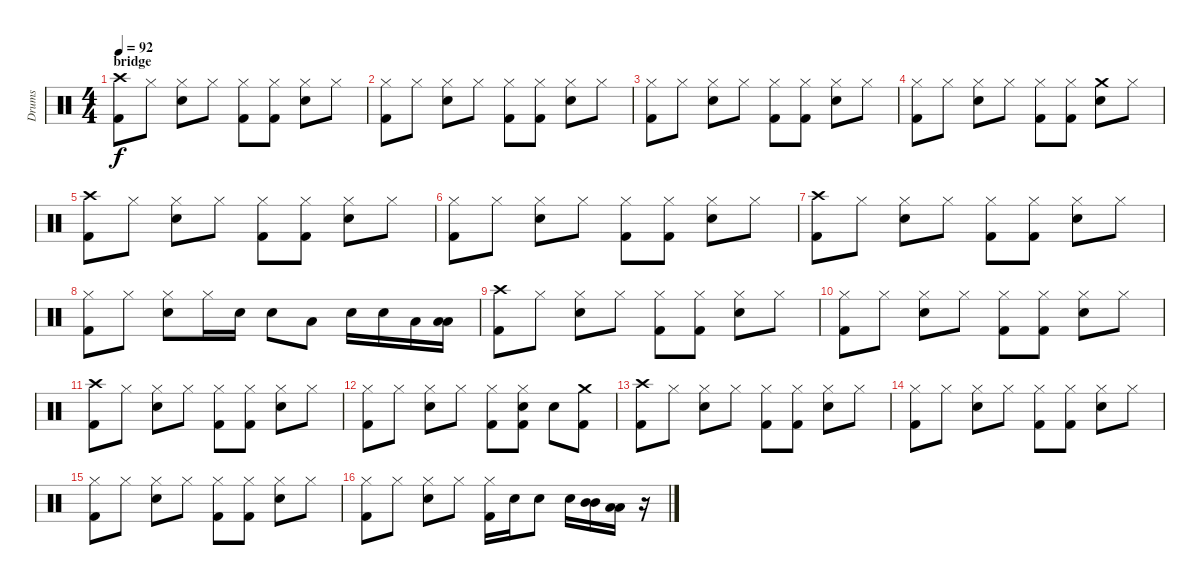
\track ("Drums" "Drums") {instrument percussion}
\staff {score}
\articulation defaults
\ts (4 4)
\section ("" "bridge")
\tempo 92
\clef neutral
\ks c
("Kick (hit) 2" "Crash high (hit)").8{dy f} "Hi-Hat (closed)".8 ("Hi-Hat (closed)" "Snare (hit) 2").8 "Hi-Hat (closed)".8 ("Hi-Hat (closed)" "Kick (hit) 2").8 ("Hi-Hat (closed)" "Kick (hit) 2").8 ("Hi-Hat (closed)" "Snare (hit) 2").8 "Hi-Hat (closed)".8 |
("Hi-Hat (closed)" "Kick (hit) 2").8 "Hi-Hat (closed)".8 ("Hi-Hat (closed)" "Snare (hit) 2").8 "Hi-Hat (closed)".8 ("Hi-Hat (closed)" "Kick (hit) 2").8 ("Hi-Hat (closed)" "Kick (hit) 2").8 ("Hi-Hat (closed)" "Snare (hit) 2").8 "Hi-Hat (closed)".8 |
("Hi-Hat (closed)" "Kick (hit) 2").8 "Hi-Hat (closed)".8 ("Hi-Hat (closed)" "Snare (hit) 2").8 "Hi-Hat (closed)".8 ("Hi-Hat (closed)" "Kick (hit) 2").8 ("Hi-Hat (closed)" "Kick (hit) 2").8 ("Hi-Hat (closed)" "Snare (hit) 2").8 "Hi-Hat (closed)".8 |
("Hi-Hat (closed)" "Kick (hit) 2").8 "Hi-Hat (closed)".8 ("Hi-Hat (closed)" "Snare (hit) 2").8 "Hi-Hat (closed)".8 ("Hi-Hat (closed)" "Kick (hit) 2").8 ("Hi-Hat (closed)" "Kick (hit) 2").8 ("Snare (hit) 2" "Crash medium (hit)").8 "Hi-Hat (closed)".8 |
("Kick (hit) 2" "Crash high (hit)").8 "Hi-Hat (closed)".8 ("Hi-Hat (closed)" "Snare (hit) 2").8 "Hi-Hat (closed)".8 ("Hi-Hat (closed)" "Kick (hit) 2").8 ("Hi-Hat (closed)" "Kick (hit) 2").8 ("Hi-Hat (closed)" "Snare (hit) 2").8 "Hi-Hat (closed)".8 |
("Hi-Hat (closed)" "Kick (hit) 2").8 "Hi-Hat (closed)".8 ("Hi-Hat (closed)" "Snare (hit) 2").8 "Hi-Hat (closed)".8 ("Hi-Hat (closed)" "Kick (hit) 2").8 ("Hi-Hat (closed)" "Kick (hit) 2").8 ("Hi-Hat (closed)" "Snare (hit) 2").8 "Hi-Hat (closed)".8 |
("Kick (hit) 2" "Crash high (hit)").8 "Hi-Hat (closed)".8 ("Hi-Hat (closed)" "Snare (hit) 2").8 "Hi-Hat (closed)".8 ("Hi-Hat (closed)" "Kick (hit) 2").8 ("Hi-Hat (closed)" "Kick (hit) 2").8 ("Hi-Hat (closed)" "Snare (hit) 2").8 "Hi-Hat (closed)".8 |
("Hi-Hat (closed)" "Kick (hit) 2").8 "Hi-Hat (closed)".8 ("Hi-Hat (closed)" "Snare (hit) 2").8 "Hi-Hat (closed)".16 "Snare (hit) 2".16 "Snare (hit) 2".8 "Low Tom (hit)".8 "Snare (hit) 2".16 "Snare (hit) 2".16 "Low Tom (hit)".16 ("Low Tom (hit)" "Low Floor Tom (hit)").16 |
("Kick (hit) 2" "Crash high (hit)").8 "Hi-Hat (closed)".8 ("Hi-Hat (closed)" "Snare (hit) 2").8 "Hi-Hat (closed)".8 ("Hi-Hat (closed)" "Kick (hit) 2").8 ("Hi-Hat (closed)" "Kick (hit) 2").8 ("Hi-Hat (closed)" "Snare (hit) 2").8 "Hi-Hat (closed)".8 |
("Hi-Hat (closed)" "Kick (hit) 2").8 "Hi-Hat (closed)".8 ("Hi-Hat (closed)" "Snare (hit) 2").8 "Hi-Hat (closed)".8 ("Hi-Hat (closed)" "Kick (hit) 2").8 ("Hi-Hat (closed)" "Kick (hit) 2").8 ("Hi-Hat (closed)" "Snare (hit) 2").8 "Hi-Hat (closed)".8 |
("Kick (hit) 2" "Crash high (hit)").8 "Hi-Hat (closed)".8 ("Hi-Hat (closed)" "Snare (hit) 2").8 "Hi-Hat (closed)".8 ("Hi-Hat (closed)" "Kick (hit) 2").8 ("Hi-Hat (closed)" "Kick (hit) 2").8 ("Hi-Hat (closed)" "Snare (hit) 2").8 "Hi-Hat (closed)".8 |
("Hi-Hat (closed)" "Kick (hit) 2").8 "Hi-Hat (closed)".8 ("Hi-Hat (closed)" "Snare (hit) 2").8 "Hi-Hat (closed)".8 ("Hi-Hat (closed)" "Kick (hit) 2").8 ("Hi-Hat (closed)" "Snare (hit) 2" "Kick (hit) 2").8 "Snare (hit) 2".8 ("Kick (hit) 2" "Crash medium (hit)").8 |
("Kick (hit) 2" "Crash high (hit)").8 "Hi-Hat (closed)".8 ("Hi-Hat (closed)" "Snare (hit) 2").8 "Hi-Hat (closed)".8 ("Hi-Hat (closed)" "Kick (hit) 2").8 ("Hi-Hat (closed)" "Kick (hit) 2").8 ("Hi-Hat (closed)" "Snare (hit) 2").8 "Hi-Hat (closed)".8 |
("Hi-Hat (closed)" "Kick (hit) 2").8 "Hi-Hat (closed)".8 ("Hi-Hat (closed)" "Snare (hit) 2").8 "Hi-Hat (closed)".8 ("Hi-Hat (closed)" "Kick (hit) 2").8 ("Hi-Hat (closed)" "Kick (hit) 2").8 ("Hi-Hat (closed)" "Snare (hit) 2").8 "Hi-Hat (closed)".8 |
("Hi-Hat (closed)" "Kick (hit) 2").8 "Hi-Hat (closed)".8 ("Hi-Hat (closed)" "Snare (hit) 2").8 "Hi-Hat (closed)".8 ("Hi-Hat (closed)" "Kick (hit) 2").8 ("Hi-Hat (closed)" "Kick (hit) 2").8 ("Hi-Hat (closed)" "Snare (hit) 2").8 "Hi-Hat (closed)".8 |
("Hi-Hat (closed)" "Kick (hit) 2").8 "Hi-Hat (closed)".8 ("Hi-Hat (closed)" "Snare (hit) 2").8 "Hi-Hat (closed)".8 ("Hi-Hat (closed)" "Kick (hit) 2").16 "Snare (hit) 2".16 "Snare (hit) 2".8 "Snare (hit) 2".16 ("Mid Tom (hit)" "Mid Tom (hit)").16 ("Low Tom (hit)" "Low Tom (hit)").16 r.16
